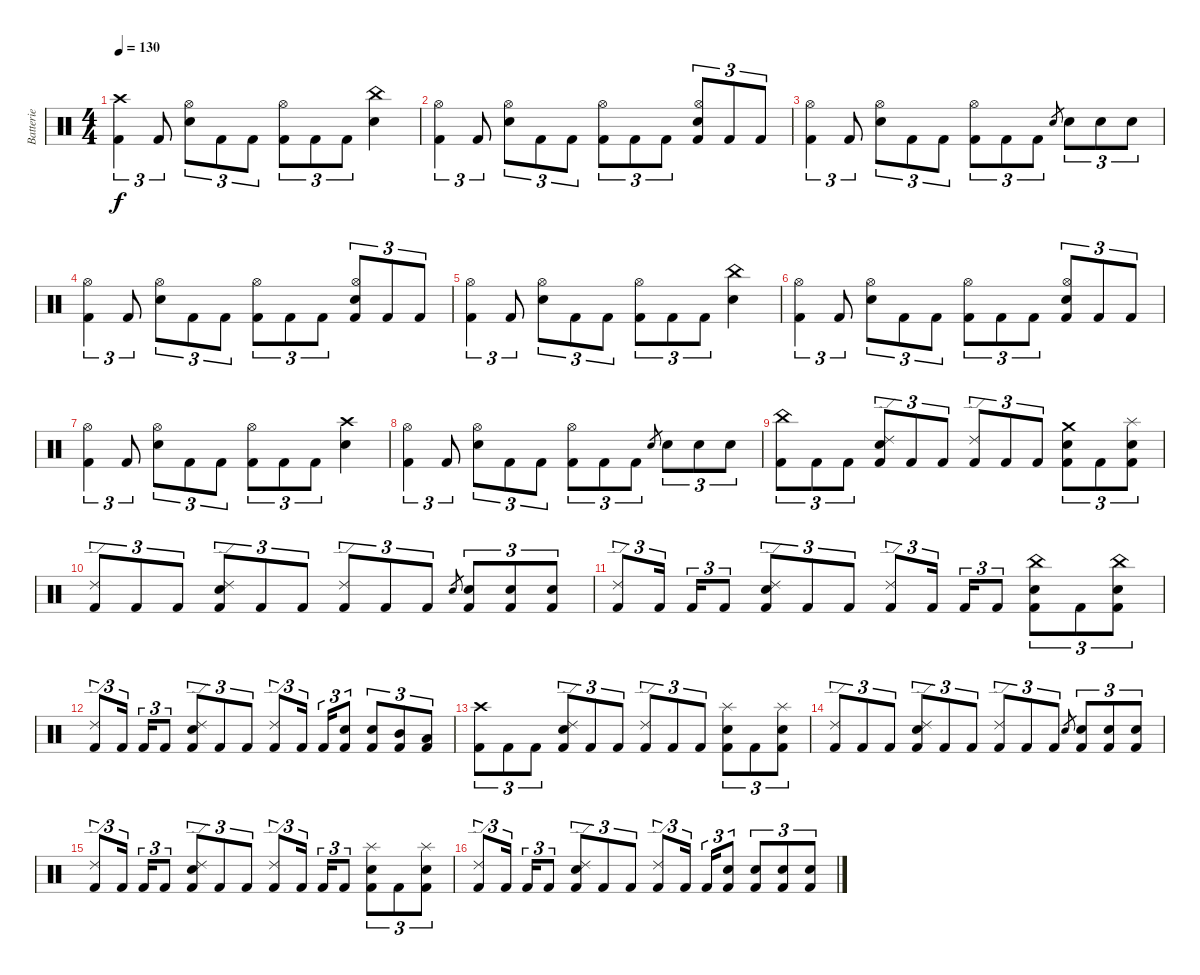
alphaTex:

\track ("Batterie" "Batterie") {instrument percussion}
\staff {score}
\articulation defaults
\ts (4 4)
\tempo 130
\clef neutral
\ks c
("Crash high (hit)" "Kick (hit) 2").4{tu (3 2) dy f} "Kick (hit) 2".8{tu (3 2)} ("Hi-Hat (open)" "Electric Snare (hit)").8{tu (3 2)} "Kick (hit) 2".8{tu (3 2)} "Kick (hit) 2".8{tu (3 2)} ("Hi-Hat (open)" "Kick (hit) 2").8{tu (3 2)} "Kick (hit) 2".8{tu (3 2)} "Kick (hit) 2".8{tu (3 2)} ("China (hit)" "Electric Snare (hit)").4 |
("Hi-Hat (open)" "Kick (hit) 2").4{tu (3 2)} "Kick (hit) 2".8{tu (3 2)} ("Hi-Hat (open)" "Electric Snare (hit)").8{tu (3 2)} "Kick (hit) 2".8{tu (3 2)} "Kick (hit) 2".8{tu (3 2)} ("Hi-Hat (open)" "Kick (hit) 2").8{tu (3 2)} "Kick (hit) 2".8{tu (3 2)} "Kick (hit) 2".8{tu (3 2)} ("Hi-Hat (open)" "Electric Snare (hit)" "Kick (hit) 2").8{tu (3 2)} "Kick (hit) 2".8{tu (3 2)} "Kick (hit) 2".8{tu (3 2)} |
("Hi-Hat (open)" "Kick (hit) 2").4{tu (3 2)} "Kick (hit) 2".8{tu (3 2)} ("Hi-Hat (open)" "Electric Snare (hit)").8{tu (3 2)} "Kick (hit) 2".8{tu (3 2)} "Kick (hit) 2".8{tu (3 2)} ("Hi-Hat (open)" "Kick (hit) 2").8{tu (3 2)} "Kick (hit) 2".8{tu (3 2)} "Kick (hit) 2".8{tu (3 2)} "Electric Snare (hit)".8{gr} "Electric Snare (hit)".8{tu (3 2)} "Electric Snare (hit)".8{tu (3 2)} "Electric Snare (hit)".8{tu (3 2)} |
("Hi-Hat (open)" "Kick (hit) 2").4{tu (3 2)} "Kick (hit) 2".8{tu (3 2)} ("Hi-Hat (open)" "Electric Snare (hit)").8{tu (3 2)} "Kick (hit) 2".8{tu (3 2)} "Kick (hit) 2".8{tu (3 2)} ("Hi-Hat (open)" "Kick (hit) 2").8{tu (3 2)} "Kick (hit) 2".8{tu (3 2)} "Kick (hit) 2".8{tu (3 2)} ("Hi-Hat (open)" "Electric Snare (hit)" "Kick (hit) 2").8{tu (3 2)} "Kick (hit) 2".8{tu (3 2)} "Kick (hit) 2".8{tu (3 2)} |
("Hi-Hat (open)" "Kick (hit) 2").4{tu (3 2)} "Kick (hit) 2".8{tu (3 2)} ("Hi-Hat (open)" "Electric Snare (hit)").8{tu (3 2)} "Kick (hit) 2".8{tu (3 2)} "Kick (hit) 2".8{tu (3 2)} ("Hi-Hat (open)" "Kick (hit) 2").8{tu (3 2)} "Kick (hit) 2".8{tu (3 2)} "Kick (hit) 2".8{tu (3 2)} ("China (hit)" "Electric Snare (hit)").4 |
("Hi-Hat (open)" "Kick (hit) 2").4{tu (3 2)} "Kick (hit) 2".8{tu (3 2)} ("Hi-Hat (open)" "Electric Snare (hit)").8{tu (3 2)} "Kick (hit) 2".8{tu (3 2)} "Kick (hit) 2".8{tu (3 2)} ("Hi-Hat (open)" "Kick (hit) 2").8{tu (3 2)} "Kick (hit) 2".8{tu (3 2)} "Kick (hit) 2".8{tu (3 2)} ("Hi-Hat (open)" "Electric Snare (hit)" "Kick (hit) 2").8{tu (3 2)} "Kick (hit) 2".8{tu (3 2)} "Kick (hit) 2".8{tu (3 2)} |
("Hi-Hat (open)" "Kick (hit) 2").4{tu (3 2)} "Kick (hit) 2".8{tu (3 2)} ("Hi-Hat (open)" "Electric Snare (hit)").8{tu (3 2)} "Kick (hit) 2".8{tu (3 2)} "Kick (hit) 2".8{tu (3 2)} ("Hi-Hat (open)" "Kick (hit) 2").8{tu (3 2)} "Kick (hit) 2".8{tu (3 2)} "Kick (hit) 2".8{tu (3 2)} ("Crash high (hit)" "Electric Snare (hit)").4 |
("Hi-Hat (open)" "Kick (hit) 2").4{tu (3 2)} "Kick (hit) 2".8{tu (3 2)} ("Hi-Hat (open)" "Electric Snare (hit)").8{tu (3 2)} "Kick (hit) 2".8{tu (3 2)} "Kick (hit) 2".8{tu (3 2)} ("Hi-Hat (open)" "Kick (hit) 2").8{tu (3 2)} "Kick (hit) 2".8{tu (3 2)} "Kick (hit) 2".8{tu (3 2)} "Electric Snare (hit)".8{gr} "Electric Snare (hit)".8{tu (3 2)} "Electric Snare (hit)".8{tu (3 2)} "Electric Snare (hit)".8{tu (3 2)} |
("China (hit)" "Kick (hit) 2").8{tu (3 2)} "Kick (hit) 2".8{tu (3 2)} "Kick (hit) 2".8{tu (3 2)} ("Ride (edge) 2" "Electric Snare (hit)" "Kick (hit) 2").8{tu (3 2)} "Kick (hit) 2".8{tu (3 2)} "Kick (hit) 2".8{tu (3 2)} ("Ride (edge) 2" "Kick (hit) 2").8{tu (3 2)} "Kick (hit) 2".8{tu (3 2)} "Kick (hit) 2".8{tu (3 2)} ("Crash medium (hit)" "Electric Snare (hit)" "Kick (hit) 2").8{tu (3 2)} "Kick (hit) 2".8{tu (3 2)} ("Splash (hit)" "Electric Snare (hit)" "Kick (hit) 2").8{tu (3 2)} |
("Ride (edge) 2" "Kick (hit) 2").8{tu (3 2)} "Kick (hit) 2".8{tu (3 2)} "Kick (hit) 2".8{tu (3 2)} ("Ride (edge) 2" "Electric Snare (hit)" "Kick (hit) 2").8{tu (3 2)} "Kick (hit) 2".8{tu (3 2)} "Kick (hit) 2".8{tu (3 2)} ("Ride (edge) 2" "Kick (hit) 2").8{tu (3 2)} "Kick (hit) 2".8{tu (3 2)} "Kick (hit) 2".8{tu (3 2)} "Electric Snare (hit)".8{gr} ("Electric Snare (hit)" "Kick (hit) 2").8{tu (3 2)} ("Electric Snare (hit)" "Kick (hit) 2").8{tu (3 2)} ("Electric Snare (hit)" "Kick (hit) 2").8{tu (3 2)} |
("Ride (edge) 2" "Kick (hit) 2").8{tu (3 2)} "Kick (hit) 2".16{tu (3 2)} "Kick (hit) 2".16{tu (3 2)} "Kick (hit) 2".8{tu (3 2)} ("Ride (edge) 2" "Electric Snare (hit)" "Kick (hit) 2").8{tu (3 2)} "Kick (hit) 2".8{tu (3 2)} "Kick (hit) 2".8{tu (3 2)} ("Ride (edge) 2" "Kick (hit) 2").8{tu (3 2)} "Kick (hit) 2".16{tu (3 2)} "Kick (hit) 2".16{tu (3 2)} "Kick (hit) 2".8{tu (3 2)} ("China (hit)" "Electric Snare (hit)" "Kick (hit) 2").8{tu (3 2)} "Kick (hit) 2".8{tu (3 2)} ("China (hit)" "Electric Snare (hit)" "Kick (hit) 2").8{tu (3 2)} |
("Ride (edge) 2" "Kick (hit) 2").8{tu (3 2)} "Kick (hit) 2".16{tu (3 2)} "Kick (hit) 2".16{tu (3 2)} "Kick (hit) 2".8{tu (3 2)} ("Ride (edge) 2" "Electric Snare (hit)" "Kick (hit) 2").8{tu (3 2)} "Kick (hit) 2".8{tu (3 2)} "Kick (hit) 2".8{tu (3 2)} ("Ride (edge) 2" "Kick (hit) 2").8{tu (3 2)} "Kick (hit) 2".16{tu (3 2)} "Kick (hit) 2".16{tu (3 2)} ("Electric Snare (hit)" "Kick (hit) 2").8{tu (3 2)} ("Electric Snare (hit)" "Kick (hit) 2").8{tu (3 2)} ("Mid Tom (hit)" "Kick (hit) 2").8{tu (3 2)} ("Low Tom (hit)" "Kick (hit) 2").8{tu (3 2)} |
("Crash high (hit)" "Kick (hit) 2").8{tu (3 2)} "Kick (hit) 2".8{tu (3 2)} "Kick (hit) 2".8{tu (3 2)} ("Ride (edge) 2" "Electric Snare (hit)" "Kick (hit) 2").8{tu (3 2)} "Kick (hit) 2".8{tu (3 2)} "Kick (hit) 2".8{tu (3 2)} ("Ride (edge) 2" "Kick (hit) 2").8{tu (3 2)} "Kick (hit) 2".8{tu (3 2)} "Kick (hit) 2".8{tu (3 2)} ("Splash (hit)" "Electric Snare (hit)" "Kick (hit) 2").8{tu (3 2)} "Kick (hit) 2".8{tu (3 2)} ("Splash (hit)" "Electric Snare (hit)" "Kick (hit) 2").8{tu (3 2)} |
("Ride (edge) 2" "Kick (hit) 2").8{tu (3 2)} "Kick (hit) 2".8{tu (3 2)} "Kick (hit) 2".8{tu (3 2)} ("Ride (edge) 2" "Electric Snare (hit)" "Kick (hit) 2").8{tu (3 2)} "Kick (hit) 2".8{tu (3 2)} "Kick (hit) 2".8{tu (3 2)} ("Ride (edge) 2" "Kick (hit) 2").8{tu (3 2)} "Kick (hit) 2".8{tu (3 2)} "Kick (hit) 2".8{tu (3 2)} "Electric Snare (hit)".8{gr} ("Electric Snare (hit)" "Kick (hit) 2").8{tu (3 2)} ("Electric Snare (hit)" "Kick (hit) 2").8{tu (3 2)} ("Electric Snare (hit)" "Kick (hit) 2").8{tu (3 2)} |
("Ride (edge) 2" "Kick (hit) 2").8{tu (3 2)} "Kick (hit) 2".16{tu (3 2)} "Kick (hit) 2".16{tu (3 2)} "Kick (hit) 2".8{tu (3 2)} ("Ride (edge) 2" "Electric Snare (hit)" "Kick (hit) 2").8{tu (3 2)} "Kick (hit) 2".8{tu (3 2)} "Kick (hit) 2".8{tu (3 2)} ("Ride (edge) 2" "Kick (hit) 2").8{tu (3 2)} "Kick (hit) 2".16{tu (3 2)} "Kick (hit) 2".16{tu (3 2)} "Kick (hit) 2".8{tu (3 2)} ("Splash (hit)" "Electric Snare (hit)" "Kick (hit) 2").8{tu (3 2)} "Kick (hit) 2".8{tu (3 2)} ("Splash (hit)" "Electric Snare (hit)" "Kick (hit) 2").8{tu (3 2)} |
("Ride (edge) 2" "Kick (hit) 2").8{tu (3 2)} "Kick (hit) 2".16{tu (3 2)} "Kick (hit) 2".16{tu (3 2)} "Kick (hit) 2".8{tu (3 2)} ("Ride (edge) 2" "Electric Snare (hit)" "Kick (hit) 2").8{tu (3 2)} "Kick (hit) 2".8{tu (3 2)} "Kick (hit) 2".8{tu (3 2)} ("Ride (edge) 2" "Kick (hit) 2").8{tu (3 2)} "Kick (hit) 2".16{tu (3 2)} "Kick (hit) 2".16{tu (3 2)} ("Electric Snare (hit)" "Kick (hit) 2").8{tu (3 2)} ("Electric Snare (hit)" "Kick (hit) 2").8{tu (3 2)} ("Electric Snare (hit)" "Kick (hit) 2").8{tu (3 2)} ("Electric Snare (hit)" "Kick (hit) 2").8{tu (3 2)}
